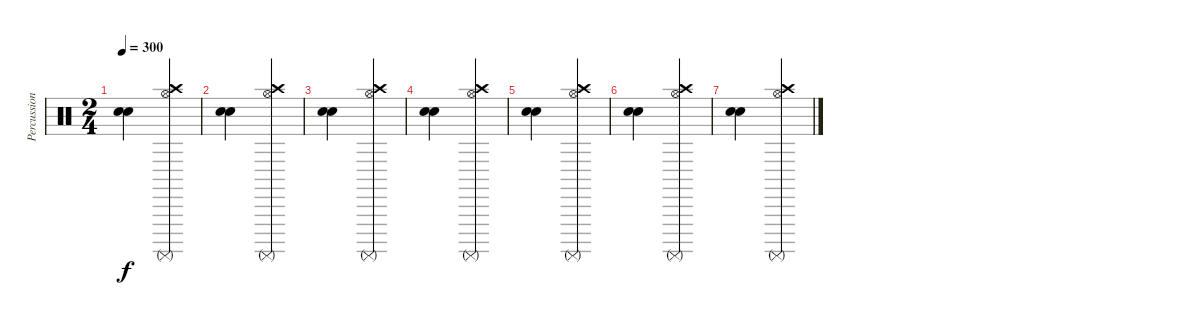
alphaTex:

\track ("Percussioni" "Percussion") {instrument percussion}
\staff {score}
\articulation defaults
\ts (2 4)
\tempo 300
\clef neutral
\ks c
("Snare (hit) 2" "Snare (hit) 2").4{dy f} ("Hi-Hat (open)" "Crash high (hit)" "Surdo (mute)").4 |
("Snare (hit) 2" "Snare (hit) 2").4 ("Hi-Hat (open)" "Crash high (hit)" "Surdo (mute)").4 |
("Snare (hit) 2" "Snare (hit) 2").4 ("Hi-Hat (open)" "Crash high (hit)" "Surdo (mute)").4 |
("Snare (hit) 2" "Snare (hit) 2").4 ("Hi-Hat (open)" "Crash high (hit)" "Surdo (mute)").4 |
("Snare (hit) 2" "Snare (hit) 2").4 ("Hi-Hat (open)" "Crash high (hit)" "Surdo (mute)").4 |
("Snare (hit) 2" "Snare (hit) 2").4 ("Hi-Hat (open)" "Crash high (hit)" "Surdo (mute)").4 |
("Snare (hit) 2" "Snare (hit) 2").4 ("Hi-Hat (open)" "Crash high (hit)" "Surdo (mute)").4
